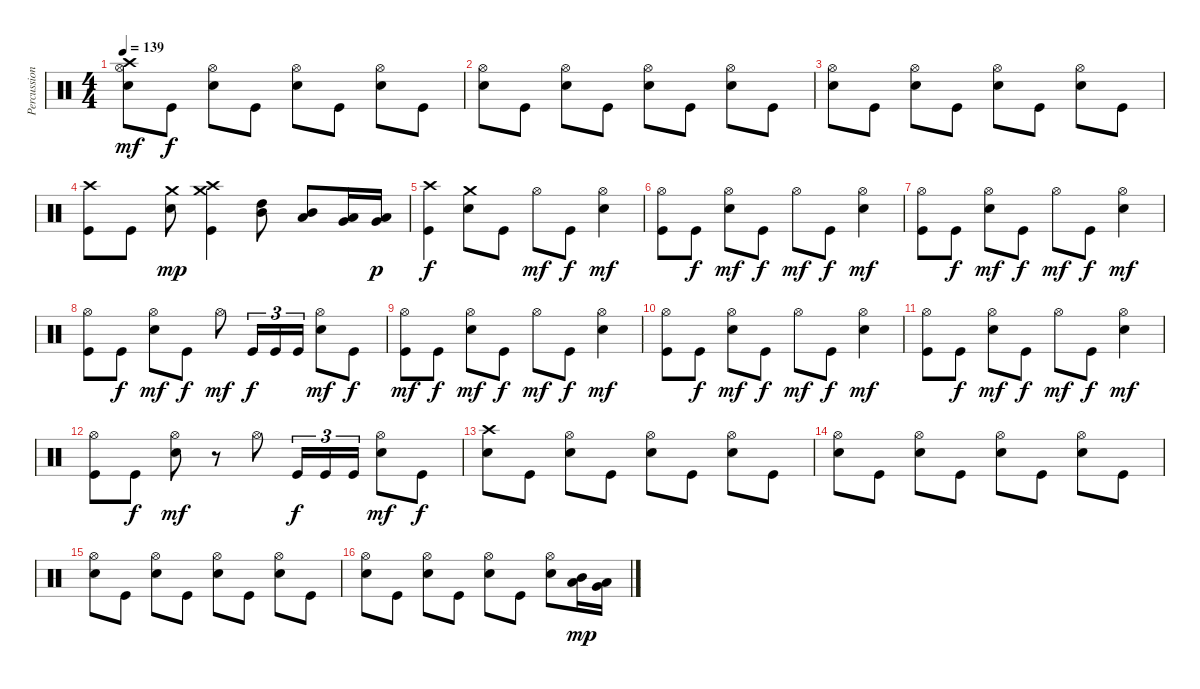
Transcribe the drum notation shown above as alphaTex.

\track ("Percussions" "Percussion") {instrument percussion}
\staff {score}
\articulation defaults
\ts (4 4)
\tempo 139
\clef neutral
\ks c
("Electric Snare (hit)" "Hi-Hat (open)" "Crash high (hit)").8{dy mf} "Kick (hit)".8{dy f} ("Electric Snare (hit)" "Hi-Hat (open)").8 "Kick (hit)".8 ("Electric Snare (hit)" "Hi-Hat (open)").8 "Kick (hit)".8 ("Electric Snare (hit)" "Hi-Hat (open)").8 "Kick (hit)".8 |
("Electric Snare (hit)" "Hi-Hat (open)").8 "Kick (hit)".8 ("Electric Snare (hit)" "Hi-Hat (open)").8 "Kick (hit)".8 ("Electric Snare (hit)" "Hi-Hat (open)").8 "Kick (hit)".8 ("Electric Snare (hit)" "Hi-Hat (open)").8 "Kick (hit)".8 |
("Electric Snare (hit)" "Hi-Hat (open)").8 "Kick (hit)".8 ("Electric Snare (hit)" "Hi-Hat (open)").8 "Kick (hit)".8 ("Electric Snare (hit)" "Hi-Hat (open)").8 "Kick (hit)".8 ("Electric Snare (hit)" "Hi-Hat (open)").8 "Kick (hit)".8 |
("Kick (hit)" "Crash high (hit)").8 "Kick (hit)".8 ("Electric Snare (hit)" "Crash medium (hit)").8{dy mp} ("Kick (hit)" "Crash high (hit)" "Crash medium (hit)").4 ("Mid Tom (hit)" "High Tom (hit)").8 ("Low Tom (hit)" "Mid Tom (hit)").8 ("Very Low Tom (hit)" "Low Tom (hit)").16 ("Very Low Tom (hit)" "Low Tom (hit)").16{dy p} |
("Kick (hit)" "Crash high (hit)").4{dy f} ("Electric Snare (hit)" "Crash medium (hit)").8 "Kick (hit)".8 "Hi-Hat (open)".8{dy mf} "Kick (hit)".8{dy f} ("Electric Snare (hit)" "Hi-Hat (open)").4{dy mf} |
("Kick (hit)" "Hi-Hat (open)").8 "Kick (hit)".8{dy f} ("Electric Snare (hit)" "Hi-Hat (open)").8{dy mf} "Kick (hit)".8{dy f} "Hi-Hat (open)".8{dy mf} "Kick (hit)".8{dy f} ("Electric Snare (hit)" "Hi-Hat (open)").4{dy mf} |
("Kick (hit)" "Hi-Hat (open)").8 "Kick (hit)".8{dy f} ("Electric Snare (hit)" "Hi-Hat (open)").8{dy mf} "Kick (hit)".8{dy f} "Hi-Hat (open)".8{dy mf} "Kick (hit)".8{dy f} ("Electric Snare (hit)" "Hi-Hat (open)").4{dy mf} |
("Kick (hit)" "Hi-Hat (open)").8 "Kick (hit)".8{dy f} ("Electric Snare (hit)" "Hi-Hat (open)").8{dy mf} "Kick (hit)".8{dy f} "Hi-Hat (open)".8{dy mf} "Kick (hit)".16{tu (3 2) dy f} "Kick (hit)".16{tu (3 2)} "Kick (hit)".16{tu (3 2)} ("Electric Snare (hit)" "Hi-Hat (open)").8{dy mf} "Kick (hit)".8{dy f} |
("Kick (hit)" "Hi-Hat (open)").8{dy mf} "Kick (hit)".8{dy f} ("Electric Snare (hit)" "Hi-Hat (open)").8{dy mf} "Kick (hit)".8{dy f} "Hi-Hat (open)".8{dy mf} "Kick (hit)".8{dy f} ("Electric Snare (hit)" "Hi-Hat (open)").4{dy mf} |
("Kick (hit)" "Hi-Hat (open)").8 "Kick (hit)".8{dy f} ("Electric Snare (hit)" "Hi-Hat (open)").8{dy mf} "Kick (hit)".8{dy f} "Hi-Hat (open)".8{dy mf} "Kick (hit)".8{dy f} ("Electric Snare (hit)" "Hi-Hat (open)").4{dy mf} |
("Kick (hit)" "Hi-Hat (open)").8 "Kick (hit)".8{dy f} ("Electric Snare (hit)" "Hi-Hat (open)").8{dy mf} "Kick (hit)".8{dy f} "Hi-Hat (open)".8{dy mf} "Kick (hit)".8{dy f} ("Electric Snare (hit)" "Hi-Hat (open)").4{dy mf} |
("Kick (hit)" "Hi-Hat (open)").8 "Kick (hit)".8{dy f} ("Electric Snare (hit)" "Hi-Hat (open)").8{dy mf} r.8 "Hi-Hat (open)".8 "Kick (hit)".16{tu (3 2) dy f} "Kick (hit)".16{tu (3 2)} "Kick (hit)".16{tu (3 2)} ("Electric Snare (hit)" "Hi-Hat (open)").8{dy mf} "Kick (hit)".8{dy f} |
("Electric Snare (hit)" "Crash high (hit)").8 "Kick (hit)".8 ("Electric Snare (hit)" "Hi-Hat (open)").8 "Kick (hit)".8 ("Electric Snare (hit)" "Hi-Hat (open)").8 "Kick (hit)".8 ("Electric Snare (hit)" "Hi-Hat (open)").8 "Kick (hit)".8 |
("Electric Snare (hit)" "Hi-Hat (open)").8 "Kick (hit)".8 ("Electric Snare (hit)" "Hi-Hat (open)").8 "Kick (hit)".8 ("Electric Snare (hit)" "Hi-Hat (open)").8 "Kick (hit)".8 ("Electric Snare (hit)" "Hi-Hat (open)").8 "Kick (hit)".8 |
("Electric Snare (hit)" "Hi-Hat (open)").8 "Kick (hit)".8 ("Electric Snare (hit)" "Hi-Hat (open)").8 "Kick (hit)".8 ("Electric Snare (hit)" "Hi-Hat (open)").8 "Kick (hit)".8 ("Electric Snare (hit)" "Hi-Hat (open)").8 "Kick (hit)".8 |
("Electric Snare (hit)" "Hi-Hat (open)").8 "Kick (hit)".8 ("Electric Snare (hit)" "Hi-Hat (open)").8 "Kick (hit)".8 ("Electric Snare (hit)" "Hi-Hat (open)").8 "Kick (hit)".8 ("Electric Snare (hit)" "Hi-Hat (open)").8 ("Low Tom (hit)" "Mid Tom (hit)").16{dy mp} ("Very Low Tom (hit)" "Low Tom (hit)").16
